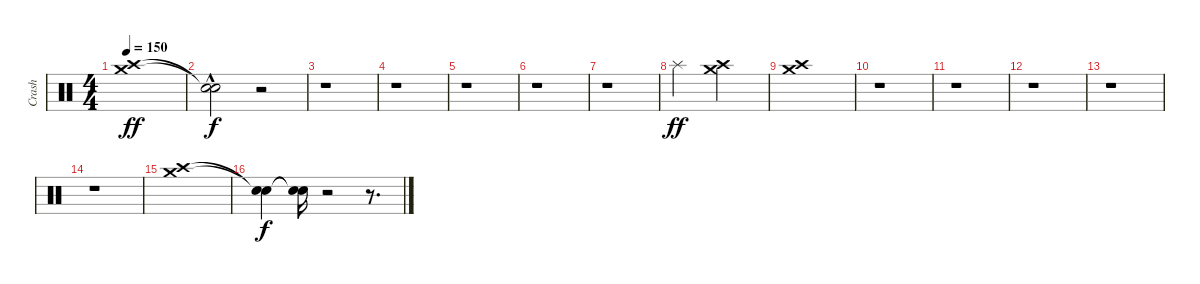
\track ("Crash" "Crash") {instrument percussion}
\staff {score}
\articulation defaults
\ts (4 4)
\tempo 150
\clef neutral
\ks c
("Crash high (hit)" "Crash medium (hit)").1{dy ff} |
("Snare (hit)"{hac t} "Snare (hit)"{t}).2{dy f} r.2 |
r.1 |
r.1 |
r.1 |
r.1 |
r.1 |
"Splash (hit)".2{dy ff} ("Crash high (hit)" "Crash medium (hit)").2 |
("Crash high (hit)" "Crash medium (hit)").1 |
r.1 |
r.1 |
r.1 |
r.1 |
r.1 |
("Crash high (hit)" "Crash medium (hit)").1 |
("Snare (hit)"{t} "Snare (hit)"{t}).4{dy f} ("Snare (hit)"{t} "Snare (hit)"{t}).16 r.2 r.8{d}
